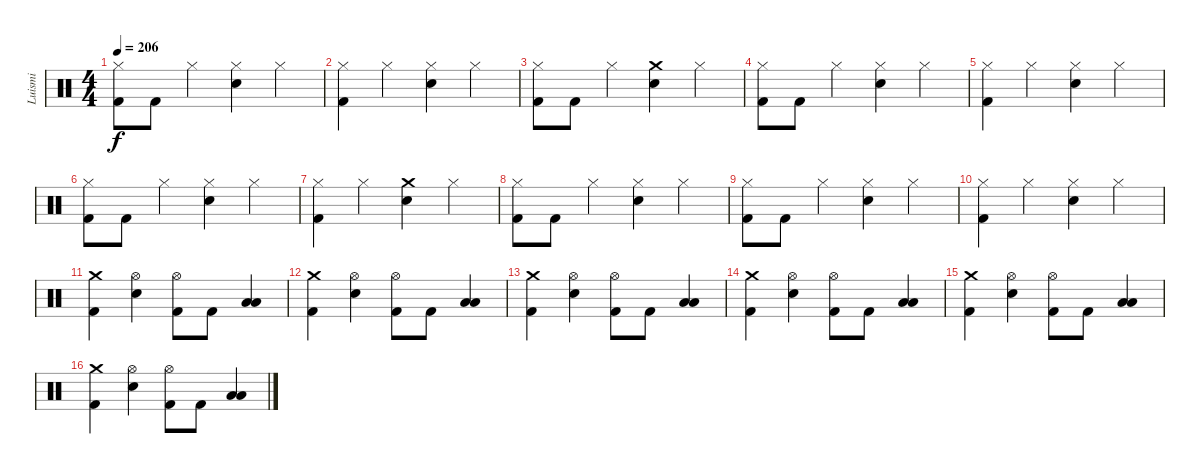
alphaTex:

\track ("Luismi" "Luismi") {instrument percussion}
\staff {score}
\articulation defaults
\ts (4 4)
\tempo 206
\clef neutral
\ks c
("Hi-Hat (closed)" "Kick (hit) 2").8{dy f} "Kick (hit) 2".8 "Hi-Hat (closed)".4 ("Hi-Hat (closed)" "Snare (hit) 2").4 "Hi-Hat (closed)".4 |
("Hi-Hat (closed)" "Kick (hit) 2").4 "Hi-Hat (closed)".4 ("Hi-Hat (closed)" "Snare (hit) 2").4 "Hi-Hat (closed)".4 |
("Hi-Hat (closed)" "Kick (hit) 2").8 "Kick (hit) 2".8 "Hi-Hat (closed)".4 ("Crash medium (hit)" "Snare (hit) 2").4 "Hi-Hat (closed)".4 |
("Hi-Hat (closed)" "Kick (hit) 2").8 "Kick (hit) 2".8 "Hi-Hat (closed)".4 ("Hi-Hat (closed)" "Snare (hit) 2").4 "Hi-Hat (closed)".4 |
("Hi-Hat (closed)" "Kick (hit) 2").4 "Hi-Hat (closed)".4 ("Hi-Hat (closed)" "Snare (hit) 2").4 "Hi-Hat (closed)".4 |
("Hi-Hat (closed)" "Kick (hit) 2").8 "Kick (hit) 2".8 "Hi-Hat (closed)".4 ("Hi-Hat (closed)" "Snare (hit) 2").4 "Hi-Hat (closed)".4 |
("Hi-Hat (closed)" "Kick (hit) 2").4 "Hi-Hat (closed)".4 ("Crash medium (hit)" "Snare (hit) 2").4 "Hi-Hat (closed)".4 |
("Hi-Hat (closed)" "Kick (hit) 2").8 "Kick (hit) 2".8 "Hi-Hat (closed)".4 ("Hi-Hat (closed)" "Snare (hit) 2").4 "Hi-Hat (closed)".4 |
("Hi-Hat (closed)" "Kick (hit) 2").8 "Kick (hit) 2".8 "Hi-Hat (closed)".4 ("Hi-Hat (closed)" "Snare (hit) 2").4 "Hi-Hat (closed)".4 |
("Hi-Hat (closed)" "Kick (hit) 2").4 "Hi-Hat (closed)".4 ("Hi-Hat (closed)" "Snare (hit) 2").4 "Hi-Hat (closed)".4 |
("Crash medium (hit)" "Kick (hit) 2").4 ("Hi-Hat (open)" "Snare (hit) 2").4 ("Hi-Hat (open)" "Kick (hit) 2").8 "Kick (hit) 2".8 ("Low Floor Tom (hit)" "Low Floor Tom (hit)").4 |
("Crash medium (hit)" "Kick (hit) 2").4 ("Hi-Hat (open)" "Snare (hit) 2").4 ("Hi-Hat (open)" "Kick (hit) 2").8 "Kick (hit) 2".8 ("Low Floor Tom (hit)" "Low Floor Tom (hit)").4 |
("Crash medium (hit)" "Kick (hit) 2").4 ("Hi-Hat (open)" "Snare (hit) 2").4 ("Hi-Hat (open)" "Kick (hit) 2").8 "Kick (hit) 2".8 ("Low Floor Tom (hit)" "Low Floor Tom (hit)").4 |
("Crash medium (hit)" "Kick (hit) 2").4 ("Hi-Hat (open)" "Snare (hit) 2").4 ("Hi-Hat (open)" "Kick (hit) 2").8 "Kick (hit) 2".8 ("Low Floor Tom (hit)" "Low Floor Tom (hit)").4 |
("Crash medium (hit)" "Kick (hit) 2").4 ("Hi-Hat (open)" "Snare (hit) 2").4 ("Hi-Hat (open)" "Kick (hit) 2").8 "Kick (hit) 2".8 ("Low Floor Tom (hit)" "Low Floor Tom (hit)").4 |
("Crash medium (hit)" "Kick (hit) 2").4 ("Hi-Hat (open)" "Snare (hit) 2").4 ("Hi-Hat (open)" "Kick (hit) 2").8 "Kick (hit) 2".8 ("Low Floor Tom (hit)" "Low Floor Tom (hit)").4
